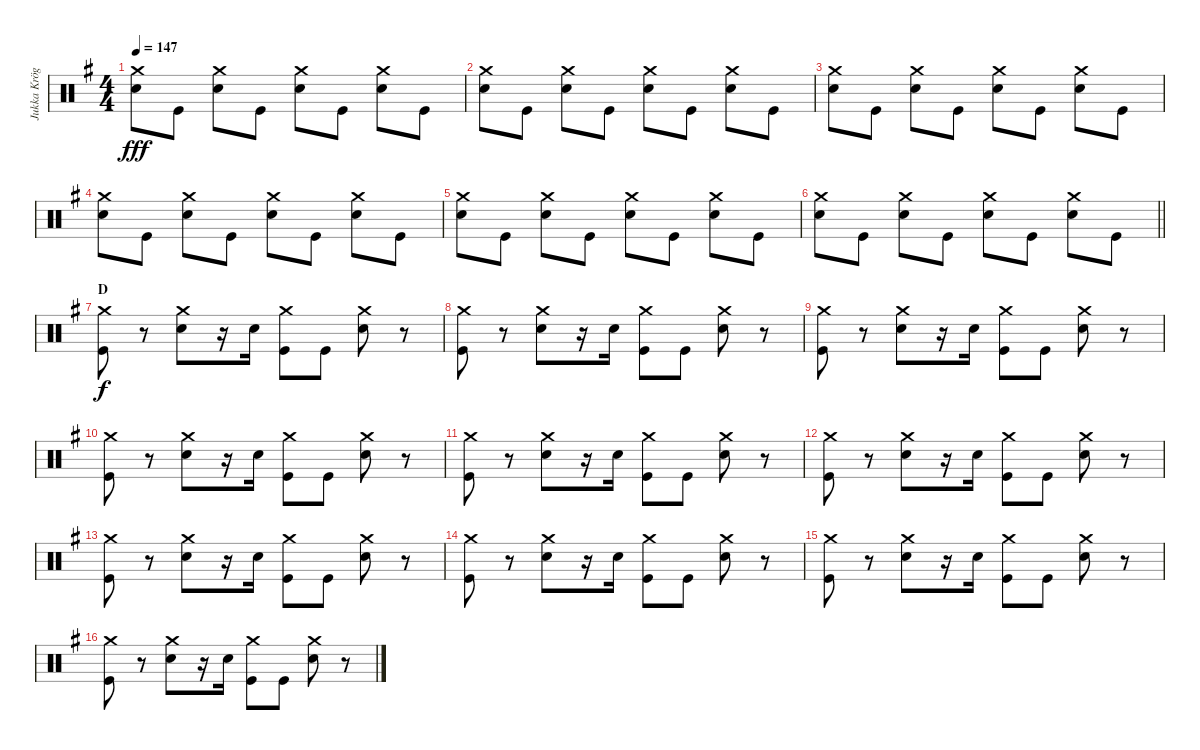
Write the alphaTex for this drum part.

\track ("Jukka Kröger" "Jukka Krög") {instrument percussion}
\staff {score}
\articulation defaults
\ts (4 4)
\tempo 147
\clef neutral
\ks eminor
("Crash medium (hit)" "Snare (hit) 2").8{dy fff} "Kick (hit)".8 ("Crash medium (hit)" "Snare (hit) 2").8 "Kick (hit)".8 ("Crash medium (hit)" "Snare (hit) 2").8 "Kick (hit)".8 ("Crash medium (hit)" "Snare (hit) 2").8 "Kick (hit)".8 |
("Crash medium (hit)" "Snare (hit) 2").8 "Kick (hit)".8 ("Crash medium (hit)" "Snare (hit) 2").8 "Kick (hit)".8 ("Crash medium (hit)" "Snare (hit) 2").8 "Kick (hit)".8 ("Crash medium (hit)" "Snare (hit) 2").8 "Kick (hit)".8 |
("Crash medium (hit)" "Snare (hit) 2").8 "Kick (hit)".8 ("Crash medium (hit)" "Snare (hit) 2").8 "Kick (hit)".8 ("Crash medium (hit)" "Snare (hit) 2").8 "Kick (hit)".8 ("Crash medium (hit)" "Snare (hit) 2").8 "Kick (hit)".8 |
("Crash medium (hit)" "Snare (hit) 2").8 "Kick (hit)".8 ("Crash medium (hit)" "Snare (hit) 2").8 "Kick (hit)".8 ("Crash medium (hit)" "Snare (hit) 2").8 "Kick (hit)".8 ("Crash medium (hit)" "Snare (hit) 2").8 "Kick (hit)".8 |
("Crash medium (hit)" "Snare (hit) 2").8 "Kick (hit)".8 ("Crash medium (hit)" "Snare (hit) 2").8 "Kick (hit)".8 ("Crash medium (hit)" "Snare (hit) 2").8 "Kick (hit)".8 ("Crash medium (hit)" "Snare (hit) 2").8 "Kick (hit)".8 |
\barLineRight lightlight
("Crash medium (hit)" "Snare (hit) 2").8 "Kick (hit)".8 ("Crash medium (hit)" "Snare (hit) 2").8 "Kick (hit)".8 ("Crash medium (hit)" "Snare (hit) 2").8 "Kick (hit)".8 ("Crash medium (hit)" "Snare (hit) 2").8 "Kick (hit)".8 |
\section ("" "D")
("Crash medium (hit)" "Kick (hit)").8{dy f} r.8 ("Crash medium (hit)" "Snare (hit) 2").8 r.16 "Snare (hit) 2".16 ("Crash medium (hit)" "Kick (hit)").8 "Kick (hit)".8 ("Crash medium (hit)" "Snare (hit) 2").8 r.8 |
("Crash medium (hit)" "Kick (hit)").8 r.8 ("Crash medium (hit)" "Snare (hit) 2").8 r.16 "Snare (hit) 2".16 ("Crash medium (hit)" "Kick (hit)").8 "Kick (hit)".8 ("Crash medium (hit)" "Snare (hit) 2").8 r.8 |
("Crash medium (hit)" "Kick (hit)").8 r.8 ("Crash medium (hit)" "Snare (hit) 2").8 r.16 "Snare (hit) 2".16 ("Crash medium (hit)" "Kick (hit)").8 "Kick (hit)".8 ("Crash medium (hit)" "Snare (hit) 2").8 r.8 |
("Crash medium (hit)" "Kick (hit)").8 r.8 ("Crash medium (hit)" "Snare (hit) 2").8 r.16 "Snare (hit) 2".16 ("Crash medium (hit)" "Kick (hit)").8 "Kick (hit)".8 ("Crash medium (hit)" "Snare (hit) 2").8 r.8 |
("Crash medium (hit)" "Kick (hit)").8 r.8 ("Crash medium (hit)" "Snare (hit) 2").8 r.16 "Snare (hit) 2".16 ("Crash medium (hit)" "Kick (hit)").8 "Kick (hit)".8 ("Crash medium (hit)" "Snare (hit) 2").8 r.8 |
("Crash medium (hit)" "Kick (hit)").8 r.8 ("Crash medium (hit)" "Snare (hit) 2").8 r.16 "Snare (hit) 2".16 ("Crash medium (hit)" "Kick (hit)").8 "Kick (hit)".8 ("Crash medium (hit)" "Snare (hit) 2").8 r.8 |
("Crash medium (hit)" "Kick (hit)").8 r.8 ("Crash medium (hit)" "Snare (hit) 2").8 r.16 "Snare (hit) 2".16 ("Crash medium (hit)" "Kick (hit)").8 "Kick (hit)".8 ("Crash medium (hit)" "Snare (hit) 2").8 r.8 |
("Crash medium (hit)" "Kick (hit)").8 r.8 ("Crash medium (hit)" "Snare (hit) 2").8 r.16 "Snare (hit) 2".16 ("Crash medium (hit)" "Kick (hit)").8 "Kick (hit)".8 ("Crash medium (hit)" "Snare (hit) 2").8 r.8 |
("Crash medium (hit)" "Kick (hit)").8 r.8 ("Crash medium (hit)" "Snare (hit) 2").8 r.16 "Snare (hit) 2".16 ("Crash medium (hit)" "Kick (hit)").8 "Kick (hit)".8 ("Crash medium (hit)" "Snare (hit) 2").8 r.8 |
("Crash medium (hit)" "Kick (hit)").8 r.8 ("Crash medium (hit)" "Snare (hit) 2").8 r.16 "Snare (hit) 2".16 ("Crash medium (hit)" "Kick (hit)").8 "Kick (hit)".8 ("Crash medium (hit)" "Snare (hit) 2").8 r.8
